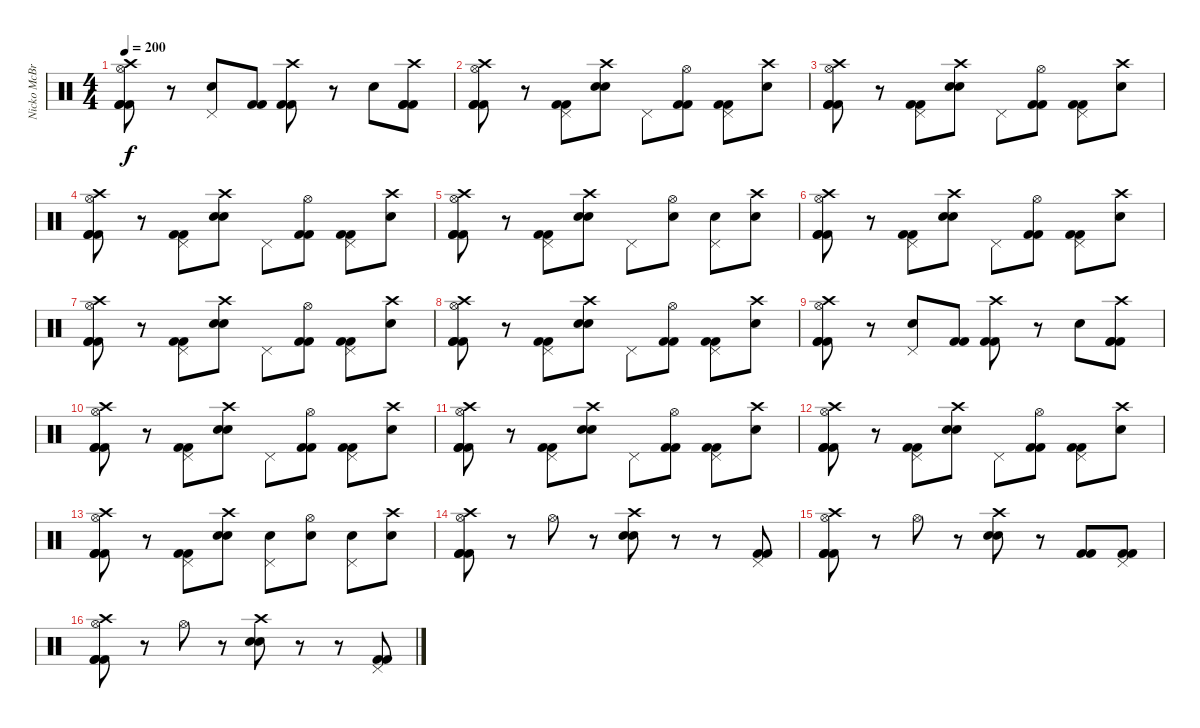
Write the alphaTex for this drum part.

\track ("Nicko McBrain" "Nicko McBr") {instrument percussion}
\staff {score}
\articulation defaults
\ts (4 4)
\tempo 200
\clef neutral
\ks c
("Crash high (hit)" "Hi-Hat (open)" "Kick (hit) 2" "Kick (hit) 2" "Kick (hit) 2").8{dy f} r.8 ("Pedal Hi-Hat (hit)" "Snare (hit) 2").8 ("Kick (hit) 2" "Kick (hit) 2").8 ("Crash high (hit)" "Kick (hit) 2" "Kick (hit) 2").8 r.8 "Snare (hit) 2".8 ("Crash high (hit)" "Kick (hit) 2" "Kick (hit) 2" "Kick (hit) 2").8 |
("Crash high (hit)" "Hi-Hat (open)" "Kick (hit) 2" "Kick (hit) 2" "Kick (hit) 2").8 r.8 ("Pedal Hi-Hat (hit)" "Kick (hit) 2" "Kick (hit) 2").8 ("Crash high (hit)" "Snare (hit) 2" "Snare (hit) 2").8 "Pedal Hi-Hat (hit)".8 ("Hi-Hat (open)" "Kick (hit) 2" "Kick (hit) 2").8 ("Pedal Hi-Hat (hit)" "Kick (hit) 2" "Kick (hit) 2").8 ("Crash high (hit)" "Snare (hit) 2").8 |
("Crash high (hit)" "Hi-Hat (open)" "Kick (hit) 2" "Kick (hit) 2" "Kick (hit) 2").8 r.8 ("Pedal Hi-Hat (hit)" "Kick (hit) 2" "Kick (hit) 2").8 ("Crash high (hit)" "Snare (hit) 2" "Snare (hit) 2").8 "Pedal Hi-Hat (hit)".8 ("Hi-Hat (open)" "Kick (hit) 2" "Kick (hit) 2").8 ("Pedal Hi-Hat (hit)" "Kick (hit) 2" "Kick (hit) 2").8 ("Crash high (hit)" "Snare (hit) 2").8 |
("Crash high (hit)" "Hi-Hat (open)" "Kick (hit) 2" "Kick (hit) 2" "Kick (hit) 2").8 r.8 ("Pedal Hi-Hat (hit)" "Kick (hit) 2" "Kick (hit) 2").8 ("Crash high (hit)" "Snare (hit) 2" "Snare (hit) 2").8 "Pedal Hi-Hat (hit)".8 ("Hi-Hat (open)" "Kick (hit) 2" "Kick (hit) 2").8 ("Pedal Hi-Hat (hit)" "Kick (hit) 2" "Kick (hit) 2").8 ("Crash high (hit)" "Snare (hit) 2").8 |
("Crash high (hit)" "Hi-Hat (open)" "Kick (hit) 2" "Kick (hit) 2" "Kick (hit) 2").8 r.8 ("Pedal Hi-Hat (hit)" "Kick (hit) 2" "Kick (hit) 2").8 ("Crash high (hit)" "Snare (hit) 2" "Snare (hit) 2").8 "Pedal Hi-Hat (hit)".8 ("Hi-Hat (open)" "Snare (hit) 2").8 ("Pedal Hi-Hat (hit)" "Snare (hit) 2").8 ("Crash high (hit)" "Snare (hit) 2").8 |
("Crash high (hit)" "Hi-Hat (open)" "Kick (hit) 2" "Kick (hit) 2" "Kick (hit) 2").8 r.8 ("Pedal Hi-Hat (hit)" "Kick (hit) 2" "Kick (hit) 2").8 ("Crash high (hit)" "Snare (hit) 2" "Snare (hit) 2").8 "Pedal Hi-Hat (hit)".8 ("Hi-Hat (open)" "Kick (hit) 2" "Kick (hit) 2").8 ("Pedal Hi-Hat (hit)" "Kick (hit) 2" "Kick (hit) 2").8 ("Crash high (hit)" "Snare (hit) 2").8 |
("Crash high (hit)" "Hi-Hat (open)" "Kick (hit) 2" "Kick (hit) 2" "Kick (hit) 2").8 r.8 ("Pedal Hi-Hat (hit)" "Kick (hit) 2" "Kick (hit) 2").8 ("Crash high (hit)" "Snare (hit) 2" "Snare (hit) 2").8 "Pedal Hi-Hat (hit)".8 ("Hi-Hat (open)" "Kick (hit) 2" "Kick (hit) 2").8 ("Pedal Hi-Hat (hit)" "Kick (hit) 2" "Kick (hit) 2").8 ("Crash high (hit)" "Snare (hit) 2").8 |
("Crash high (hit)" "Hi-Hat (open)" "Kick (hit) 2" "Kick (hit) 2" "Kick (hit) 2").8 r.8 ("Pedal Hi-Hat (hit)" "Kick (hit) 2" "Kick (hit) 2").8 ("Crash high (hit)" "Snare (hit) 2" "Snare (hit) 2").8 "Pedal Hi-Hat (hit)".8 ("Hi-Hat (open)" "Kick (hit) 2" "Kick (hit) 2").8 ("Pedal Hi-Hat (hit)" "Kick (hit) 2" "Kick (hit) 2").8 ("Crash high (hit)" "Snare (hit) 2").8 |
("Crash high (hit)" "Hi-Hat (open)" "Kick (hit) 2" "Kick (hit) 2" "Kick (hit) 2").8 r.8 ("Pedal Hi-Hat (hit)" "Snare (hit) 2").8 ("Kick (hit) 2" "Kick (hit) 2").8 ("Crash high (hit)" "Kick (hit) 2" "Kick (hit) 2").8 r.8 "Snare (hit) 2".8 ("Crash high (hit)" "Kick (hit) 2" "Kick (hit) 2" "Kick (hit) 2").8 |
("Crash high (hit)" "Hi-Hat (open)" "Kick (hit) 2" "Kick (hit) 2" "Kick (hit) 2").8 r.8 ("Pedal Hi-Hat (hit)" "Kick (hit) 2" "Kick (hit) 2").8 ("Crash high (hit)" "Snare (hit) 2" "Snare (hit) 2").8 "Pedal Hi-Hat (hit)".8 ("Hi-Hat (open)" "Kick (hit) 2" "Kick (hit) 2").8 ("Pedal Hi-Hat (hit)" "Kick (hit) 2" "Kick (hit) 2").8 ("Crash high (hit)" "Snare (hit) 2").8 |
("Crash high (hit)" "Hi-Hat (open)" "Kick (hit) 2" "Kick (hit) 2" "Kick (hit) 2").8 r.8 ("Pedal Hi-Hat (hit)" "Kick (hit) 2" "Kick (hit) 2").8 ("Crash high (hit)" "Snare (hit) 2" "Snare (hit) 2").8 "Pedal Hi-Hat (hit)".8 ("Hi-Hat (open)" "Kick (hit) 2" "Kick (hit) 2").8 ("Pedal Hi-Hat (hit)" "Kick (hit) 2" "Kick (hit) 2").8 ("Crash high (hit)" "Snare (hit) 2").8 |
("Crash high (hit)" "Hi-Hat (open)" "Kick (hit) 2" "Kick (hit) 2" "Kick (hit) 2").8 r.8 ("Pedal Hi-Hat (hit)" "Kick (hit) 2" "Kick (hit) 2").8 ("Crash high (hit)" "Snare (hit) 2" "Snare (hit) 2").8 "Pedal Hi-Hat (hit)".8 ("Hi-Hat (open)" "Kick (hit) 2" "Kick (hit) 2").8 ("Pedal Hi-Hat (hit)" "Kick (hit) 2" "Kick (hit) 2").8 ("Crash high (hit)" "Snare (hit) 2").8 |
("Crash high (hit)" "Hi-Hat (open)" "Kick (hit) 2" "Kick (hit) 2" "Kick (hit) 2").8 r.8 ("Pedal Hi-Hat (hit)" "Kick (hit) 2" "Kick (hit) 2").8 ("Crash high (hit)" "Snare (hit) 2" "Snare (hit) 2").8 ("Pedal Hi-Hat (hit)" "Snare (hit) 2").8 ("Hi-Hat (open)" "Snare (hit) 2").8 ("Pedal Hi-Hat (hit)" "Snare (hit) 2").8 ("Crash high (hit)" "Snare (hit) 2").8 |
("Crash high (hit)" "Hi-Hat (open)" "Kick (hit) 2" "Kick (hit) 2" "Kick (hit) 2").8 r.8 "Hi-Hat (open)".8 r.8 ("Crash high (hit)" "Snare (hit) 2" "Snare (hit) 2").8 r.8 r.8 ("Pedal Hi-Hat (hit)" "Kick (hit) 2" "Kick (hit) 2").8 |
("Crash high (hit)" "Hi-Hat (open)" "Kick (hit) 2" "Kick (hit) 2" "Kick (hit) 2").8 r.8 "Hi-Hat (open)".8 r.8 ("Crash high (hit)" "Snare (hit) 2" "Snare (hit) 2").8 r.8 ("Kick (hit) 2" "Kick (hit) 2").8 ("Pedal Hi-Hat (hit)" "Kick (hit) 2" "Kick (hit) 2").8 |
("Crash high (hit)" "Hi-Hat (open)" "Kick (hit) 2" "Kick (hit) 2" "Kick (hit) 2").8 r.8 "Hi-Hat (open)".8 r.8 ("Crash high (hit)" "Snare (hit) 2" "Snare (hit) 2").8 r.8 r.8 ("Pedal Hi-Hat (hit)" "Kick (hit) 2" "Kick (hit) 2").8
